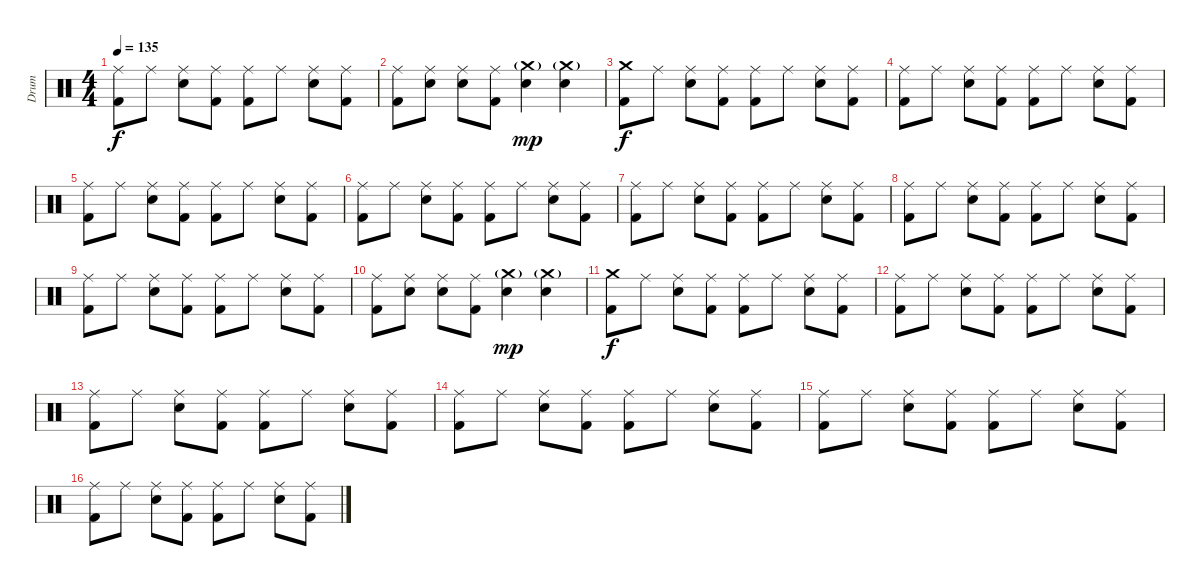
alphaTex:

\track ("Drum" "Drum") {instrument percussion}
\staff {score}
\articulation defaults
\ts (4 4)
\tempo 135
\clef neutral
\ks c
("Ride (middle)" "Kick (hit) 2").8{dy f} "Ride (middle)".8 ("Ride (middle)" "Snare (hit) 2").8 ("Ride (middle)" "Kick (hit) 2").8 ("Ride (middle)" "Kick (hit) 2").8 "Ride (middle)".8 ("Ride (middle)" "Snare (hit) 2").8 ("Ride (middle)" "Kick (hit) 2").8 |
("Ride (middle)" "Kick (hit) 2").8 ("Ride (middle)" "Snare (hit) 2").8 ("Ride (middle)" "Snare (hit) 2").8 ("Ride (middle)" "Kick (hit) 2").8 ("Crash medium (hit)"{g} "Snare (hit) 2").4{dy mp} ("Crash medium (hit)"{g} "Snare (hit) 2").4 |
("Crash medium (hit)" "Kick (hit) 2").8{dy f} "Ride (middle)".8 ("Ride (middle)" "Snare (hit) 2").8 ("Ride (middle)" "Kick (hit) 2").8 ("Ride (middle)" "Kick (hit) 2").8 "Ride (middle)".8 ("Ride (middle)" "Snare (hit) 2").8 ("Ride (middle)" "Kick (hit) 2").8 |
("Ride (middle)" "Kick (hit) 2").8 "Ride (middle)".8 ("Ride (middle)" "Snare (hit) 2").8 ("Ride (middle)" "Kick (hit) 2").8 ("Ride (middle)" "Kick (hit) 2").8 "Ride (middle)".8 ("Ride (middle)" "Snare (hit) 2").8 ("Ride (middle)" "Kick (hit) 2").8 |
("Ride (middle)" "Kick (hit) 2").8 "Ride (middle)".8 ("Ride (middle)" "Snare (hit) 2").8 ("Ride (middle)" "Kick (hit) 2").8 ("Ride (middle)" "Kick (hit) 2").8 "Ride (middle)".8 ("Ride (middle)" "Snare (hit) 2").8 ("Ride (middle)" "Kick (hit) 2").8 |
("Ride (middle)" "Kick (hit) 2").8 "Ride (middle)".8 ("Ride (middle)" "Snare (hit) 2").8 ("Ride (middle)" "Kick (hit) 2").8 ("Ride (middle)" "Kick (hit) 2").8 "Ride (middle)".8 ("Ride (middle)" "Snare (hit) 2").8 ("Ride (middle)" "Kick (hit) 2").8 |
("Ride (middle)" "Kick (hit) 2").8 "Ride (middle)".8 ("Ride (middle)" "Snare (hit) 2").8 ("Ride (middle)" "Kick (hit) 2").8 ("Ride (middle)" "Kick (hit) 2").8 "Ride (middle)".8 ("Ride (middle)" "Snare (hit) 2").8 ("Ride (middle)" "Kick (hit) 2").8 |
("Ride (middle)" "Kick (hit) 2").8 "Ride (middle)".8 ("Ride (middle)" "Snare (hit) 2").8 ("Ride (middle)" "Kick (hit) 2").8 ("Ride (middle)" "Kick (hit) 2").8 "Ride (middle)".8 ("Ride (middle)" "Snare (hit) 2").8 ("Ride (middle)" "Kick (hit) 2").8 |
("Ride (middle)" "Kick (hit) 2").8 "Ride (middle)".8 ("Ride (middle)" "Snare (hit) 2").8 ("Ride (middle)" "Kick (hit) 2").8 ("Ride (middle)" "Kick (hit) 2").8 "Ride (middle)".8 ("Ride (middle)" "Snare (hit) 2").8 ("Ride (middle)" "Kick (hit) 2").8 |
("Ride (middle)" "Kick (hit) 2").8 ("Ride (middle)" "Snare (hit) 2").8 ("Ride (middle)" "Snare (hit) 2").8 ("Ride (middle)" "Kick (hit) 2").8 ("Crash medium (hit)"{g} "Snare (hit) 2").4{dy mp} ("Crash medium (hit)"{g} "Snare (hit) 2").4 |
("Crash medium (hit)" "Kick (hit) 2").8{dy f} "Ride (middle)".8 ("Ride (middle)" "Snare (hit) 2").8 ("Ride (middle)" "Kick (hit) 2").8 ("Ride (middle)" "Kick (hit) 2").8 "Ride (middle)".8 ("Ride (middle)" "Snare (hit) 2").8 ("Ride (middle)" "Kick (hit) 2").8 |
("Ride (middle)" "Kick (hit) 2").8 "Ride (middle)".8 ("Ride (middle)" "Snare (hit) 2").8 ("Ride (middle)" "Kick (hit) 2").8 ("Ride (middle)" "Kick (hit) 2").8 "Ride (middle)".8 ("Ride (middle)" "Snare (hit) 2").8 ("Ride (middle)" "Kick (hit) 2").8 |
("Ride (middle)" "Kick (hit) 2").8 "Ride (middle)".8 ("Ride (middle)" "Snare (hit) 2").8 ("Ride (middle)" "Kick (hit) 2").8 ("Ride (middle)" "Kick (hit) 2").8 "Ride (middle)".8 ("Ride (middle)" "Snare (hit) 2").8 ("Ride (middle)" "Kick (hit) 2").8 |
("Ride (middle)" "Kick (hit) 2").8 "Ride (middle)".8 ("Ride (middle)" "Snare (hit) 2").8 ("Ride (middle)" "Kick (hit) 2").8 ("Ride (middle)" "Kick (hit) 2").8 "Ride (middle)".8 ("Ride (middle)" "Snare (hit) 2").8 ("Ride (middle)" "Kick (hit) 2").8 |
("Ride (middle)" "Kick (hit) 2").8 "Ride (middle)".8 ("Ride (middle)" "Snare (hit) 2").8 ("Ride (middle)" "Kick (hit) 2").8 ("Ride (middle)" "Kick (hit) 2").8 "Ride (middle)".8 ("Ride (middle)" "Snare (hit) 2").8 ("Ride (middle)" "Kick (hit) 2").8 |
("Ride (middle)" "Kick (hit) 2").8 "Ride (middle)".8 ("Ride (middle)" "Snare (hit) 2").8 ("Ride (middle)" "Kick (hit) 2").8 ("Ride (middle)" "Kick (hit) 2").8 "Ride (middle)".8 ("Ride (middle)" "Snare (hit) 2").8 ("Ride (middle)" "Kick (hit) 2").8
